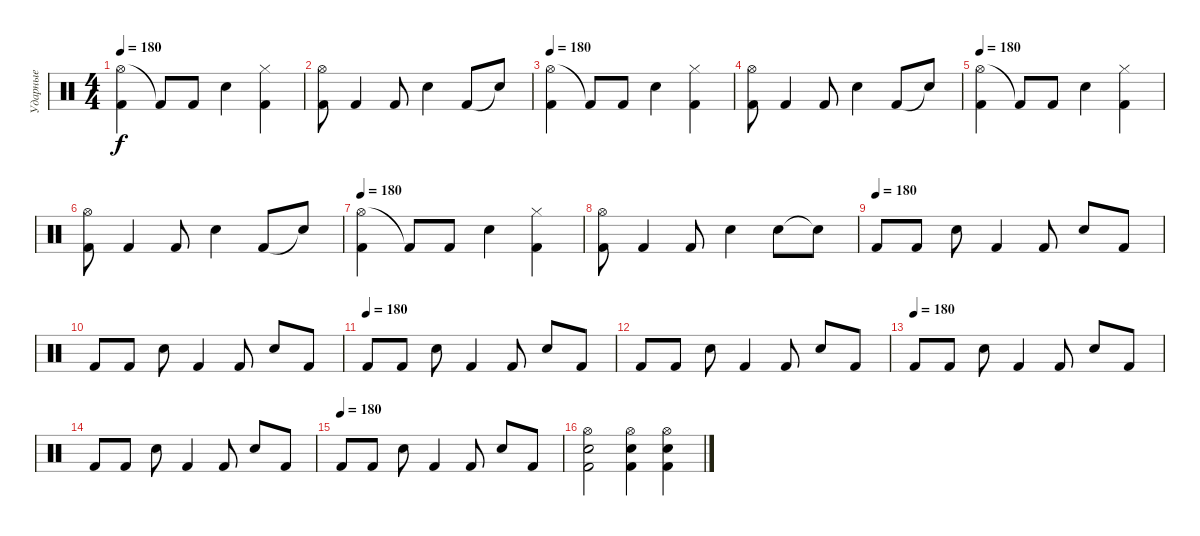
\track ("Ударные" "Ударные") {instrument percussion}
\staff {score}
\articulation defaults
\ts (4 4)
\tempo 180
\clef neutral
\ks c
("Hi-Hat (open)" "Kick (hit) 2").4{dy f} "Kick (hit) 2"{t}.8 "Kick (hit) 2".8 "Snare (hit) 2".4 ("Hi-Hat (closed)" "Kick (hit) 2").4 |
("Hi-Hat (open)" "Kick (hit) 2").8 "Kick (hit) 2".4 "Kick (hit) 2".8 "Snare (hit) 2".4 "Kick (hit) 2".8 "Snare (hit)"{t}.8 |
\tempo 180
("Hi-Hat (open)" "Kick (hit) 2").4 "Kick (hit) 2"{t}.8 "Kick (hit) 2".8 "Snare (hit) 2".4 ("Hi-Hat (closed)" "Kick (hit) 2").4 |
("Hi-Hat (open)" "Kick (hit) 2").8 "Kick (hit) 2".4 "Kick (hit) 2".8 "Snare (hit) 2".4 "Kick (hit) 2".8 "Snare (hit)"{t}.8 |
\tempo 180
("Hi-Hat (open)" "Kick (hit) 2").4 "Kick (hit) 2"{t}.8 "Kick (hit) 2".8 "Snare (hit) 2".4 ("Hi-Hat (closed)" "Kick (hit) 2").4 |
("Hi-Hat (open)" "Kick (hit) 2").8 "Kick (hit) 2".4 "Kick (hit) 2".8 "Snare (hit) 2".4 "Kick (hit) 2".8 "Snare (hit)"{t}.8 |
\tempo 180
("Hi-Hat (open)" "Kick (hit) 2").4 "Kick (hit) 2"{t}.8 "Kick (hit) 2".8 "Snare (hit) 2".4 ("Hi-Hat (closed)" "Kick (hit) 2").4 |
("Hi-Hat (open)" "Kick (hit) 2").8 "Kick (hit) 2".4 "Kick (hit) 2".8 "Snare (hit) 2".4 "Snare (hit) 2".8 "Snare (hit)"{t}.8 |
\tempo (180)
"Kick (hit) 2".8 "Kick (hit) 2".8 "Snare (hit) 2".8 "Kick (hit) 2".4 "Kick (hit) 2".8 "Snare (hit) 2".8 "Kick (hit) 2".8 |
"Kick (hit) 2".8 "Kick (hit) 2".8 "Snare (hit) 2".8 "Kick (hit) 2".4 "Kick (hit) 2".8 "Snare (hit) 2".8 "Kick (hit) 2".8 |
\tempo (180)
"Kick (hit) 2".8 "Kick (hit) 2".8 "Snare (hit) 2".8 "Kick (hit) 2".4 "Kick (hit) 2".8 "Snare (hit) 2".8 "Kick (hit) 2".8 |
"Kick (hit) 2".8 "Kick (hit) 2".8 "Snare (hit) 2".8 "Kick (hit) 2".4 "Kick (hit) 2".8 "Snare (hit) 2".8 "Kick (hit) 2".8 |
\tempo (180)
"Kick (hit) 2".8 "Kick (hit) 2".8 "Snare (hit) 2".8 "Kick (hit) 2".4 "Kick (hit) 2".8 "Snare (hit) 2".8 "Kick (hit) 2".8 |
"Kick (hit) 2".8 "Kick (hit) 2".8 "Snare (hit) 2".8 "Kick (hit) 2".4 "Kick (hit) 2".8 "Snare (hit) 2".8 "Kick (hit) 2".8 |
\tempo (180)
"Kick (hit) 2".8 "Kick (hit) 2".8 "Snare (hit) 2".8 "Kick (hit) 2".4 "Kick (hit) 2".8 "Snare (hit) 2".8 "Kick (hit) 2".8 |
("Hi-Hat (open)" "Snare (hit) 2" "Kick (hit) 2").2 ("Hi-Hat (open)" "Snare (hit) 2" "Kick (hit) 2").4 ("Hi-Hat (open)" "Snare (hit) 2" "Kick (hit) 2").4
